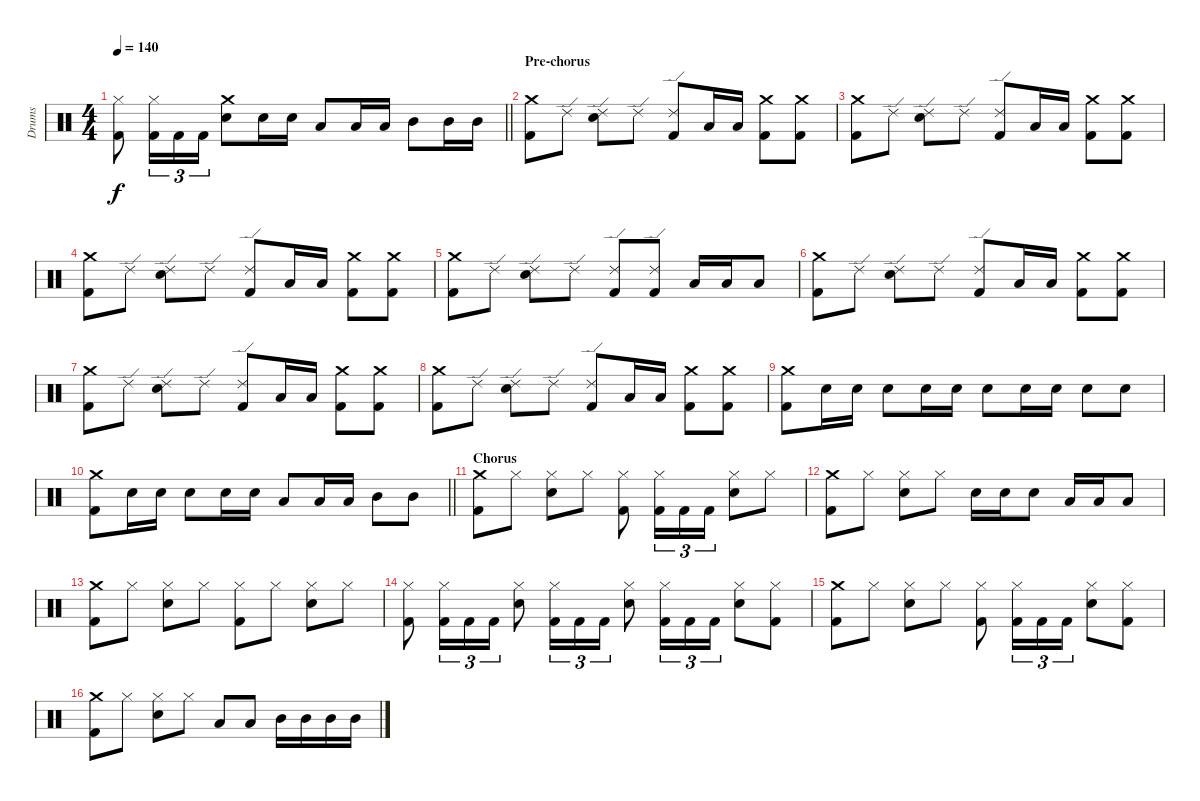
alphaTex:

\track ("Drums" "Drums") {instrument percussion}
\staff {score}
\articulation defaults
\ts (4 4)
\tempo 140
\clef neutral
\barLineRight lightlight
\ks c
("Hi-Hat (closed)" "Kick (hit) 2").8{dy f} ("Hi-Hat (closed)" "Kick (hit) 2").16{tu (3 2)} "Kick (hit) 2".16{tu (3 2)} "Kick (hit) 2".16{tu (3 2)} ("Snare (hit) 2" "Crash medium (hit)").8 "Snare (hit) 2".16 "Snare (hit) 2".16 "Low Tom (hit)".8 "Low Tom (hit)".16 "Low Tom (hit)".16 "Mid Tom (hit)".8 "Mid Tom (hit)".16 "Mid Tom (hit)".16 |
\section ("" "Pre-chorus")
("Crash medium (hit)" "Kick (hit) 2").8 "Ride (edge) 2".8 ("Snare (hit) 2" "Ride (edge) 2").8 "Ride (edge) 2".8 ("Ride (edge) 2" "Kick (hit) 2").8 "Low Tom (hit)".16 "Low Tom (hit)".16 ("Crash medium (hit)" "Kick (hit) 2").8 ("Crash medium (hit)" "Kick (hit) 2").8 |
("Crash medium (hit)" "Kick (hit) 2").8 "Ride (edge) 2".8 ("Snare (hit) 2" "Ride (edge) 2").8 "Ride (edge) 2".8 ("Ride (edge) 2" "Kick (hit) 2").8 "Low Tom (hit)".16 "Low Tom (hit)".16 ("Crash medium (hit)" "Kick (hit) 2").8 ("Crash medium (hit)" "Kick (hit) 2").8 |
("Crash medium (hit)" "Kick (hit) 2").8 "Ride (edge) 2".8 ("Snare (hit) 2" "Ride (edge) 2").8 "Ride (edge) 2".8 ("Ride (edge) 2" "Kick (hit) 2").8 "Low Tom (hit)".16 "Low Tom (hit)".16 ("Crash medium (hit)" "Kick (hit) 2").8 ("Crash medium (hit)" "Kick (hit) 2").8 |
("Crash medium (hit)" "Kick (hit) 2").8 "Ride (edge) 2".8 ("Snare (hit) 2" "Ride (edge) 2").8 "Ride (edge) 2".8 ("Kick (hit) 2" "Ride (edge) 2").8 ("Ride (edge) 2" "Kick (hit) 2").8 "Low Tom (hit)".16 "Low Tom (hit)".16 "Low Tom (hit)".8 |
("Crash medium (hit)" "Kick (hit) 2").8 "Ride (edge) 2".8 ("Snare (hit) 2" "Ride (edge) 2").8 "Ride (edge) 2".8 ("Ride (edge) 2" "Kick (hit) 2").8 "Low Tom (hit)".16 "Low Tom (hit)".16 ("Crash medium (hit)" "Kick (hit) 2").8 ("Crash medium (hit)" "Kick (hit) 2").8 |
("Crash medium (hit)" "Kick (hit) 2").8 "Ride (edge) 2".8 ("Snare (hit) 2" "Ride (edge) 2").8 "Ride (edge) 2".8 ("Ride (edge) 2" "Kick (hit) 2").8 "Low Tom (hit)".16 "Low Tom (hit)".16 ("Crash medium (hit)" "Kick (hit) 2").8 ("Crash medium (hit)" "Kick (hit) 2").8 |
("Crash medium (hit)" "Kick (hit) 2").8 "Ride (edge) 2".8 ("Snare (hit) 2" "Ride (edge) 2").8 "Ride (edge) 2".8 ("Ride (edge) 2" "Kick (hit) 2").8 "Low Tom (hit)".16 "Low Tom (hit)".16 ("Crash medium (hit)" "Kick (hit) 2").8 ("Crash medium (hit)" "Kick (hit) 2").8 |
("Kick (hit) 2" "Crash medium (hit)").8 "Snare (hit) 2".16 "Snare (hit) 2".16 "Snare (hit) 2".8 "Snare (hit) 2".16 "Snare (hit) 2".16 "Snare (hit) 2".8 "Snare (hit) 2".16 "Snare (hit) 2".16 "Snare (hit) 2".8 "Snare (hit) 2".8 |
\barLineRight lightlight
("Crash medium (hit)" "Kick (hit) 2").8 "Snare (hit) 2".16 "Snare (hit) 2".16 "Snare (hit) 2".8 "Snare (hit) 2".16 "Snare (hit) 2".16 "Low Tom (hit)".8 "Low Tom (hit)".16 "Low Tom (hit)".16 "Mid Tom (hit)".8 "Mid Tom (hit)".8 |
\section ("" "Chorus")
("Crash medium (hit)" "Kick (hit) 2").8 "Hi-Hat (closed)".8 ("Snare (hit) 2" "Hi-Hat (closed)").8 "Hi-Hat (closed)".8 ("Kick (hit) 2" "Hi-Hat (closed)").8 ("Kick (hit) 2" "Hi-Hat (closed)").16{tu (3 2)} "Kick (hit) 2".16{tu (3 2)} "Kick (hit) 2".16{tu (3 2)} ("Snare (hit) 2" "Hi-Hat (closed)").8 "Hi-Hat (closed)".8 |
("Kick (hit) 2" "Crash medium (hit)").8 "Hi-Hat (closed)".8 ("Snare (hit) 2" "Hi-Hat (closed)").8 "Hi-Hat (closed)".8 "Snare (hit) 2".16 "Snare (hit) 2".16 "Snare (hit) 2".8 "Low Tom (hit)".16 "Low Tom (hit)".16 "Low Tom (hit)".8 |
("Crash medium (hit)" "Kick (hit) 2").8 "Hi-Hat (closed)".8 ("Snare (hit) 2" "Hi-Hat (closed)").8 "Hi-Hat (closed)".8 ("Hi-Hat (closed)" "Kick (hit) 2").8 "Hi-Hat (closed)".8 ("Snare (hit) 2" "Hi-Hat (closed)").8 "Hi-Hat (closed)".8 |
("Kick (hit) 2" "Hi-Hat (closed)").8 ("Kick (hit) 2" "Hi-Hat (closed)").16{tu (3 2)} "Kick (hit) 2".16{tu (3 2)} "Kick (hit) 2".16{tu (3 2)} ("Snare (hit) 2" "Hi-Hat (closed)").8 ("Kick (hit) 2" "Hi-Hat (closed)").16{tu (3 2)} "Kick (hit) 2".16{tu (3 2)} "Kick (hit) 2".16{tu (3 2)} ("Snare (hit) 2" "Hi-Hat (closed)").8 ("Kick (hit) 2" "Hi-Hat (closed)").16{tu (3 2)} "Kick (hit) 2".16{tu (3 2)} "Kick (hit) 2".16{tu (3 2)} ("Snare (hit) 2" "Hi-Hat (closed)").8 ("Kick (hit) 2" "Hi-Hat (closed)").8 |
("Crash medium (hit)" "Kick (hit) 2").8 "Hi-Hat (closed)".8 ("Snare (hit) 2" "Hi-Hat (closed)").8 "Hi-Hat (closed)".8 ("Hi-Hat (closed)" "Kick (hit) 2").8 ("Hi-Hat (closed)" "Kick (hit) 2").16{tu (3 2)} "Kick (hit) 2".16{tu (3 2)} "Kick (hit) 2".16{tu (3 2)} ("Snare (hit) 2" "Hi-Hat (closed)").8 ("Hi-Hat (closed)" "Kick (hit) 2").8 |
("Kick (hit) 2" "Crash medium (hit)").8 "Hi-Hat (closed)".8 ("Snare (hit) 2" "Hi-Hat (closed)").8 "Hi-Hat (closed)".8 "Low Tom (hit)".8 "Low Tom (hit)".8 "Mid Tom (hit)".16 "Mid Tom (hit)".16 "Mid Tom (hit)".16 "Mid Tom (hit)".16
